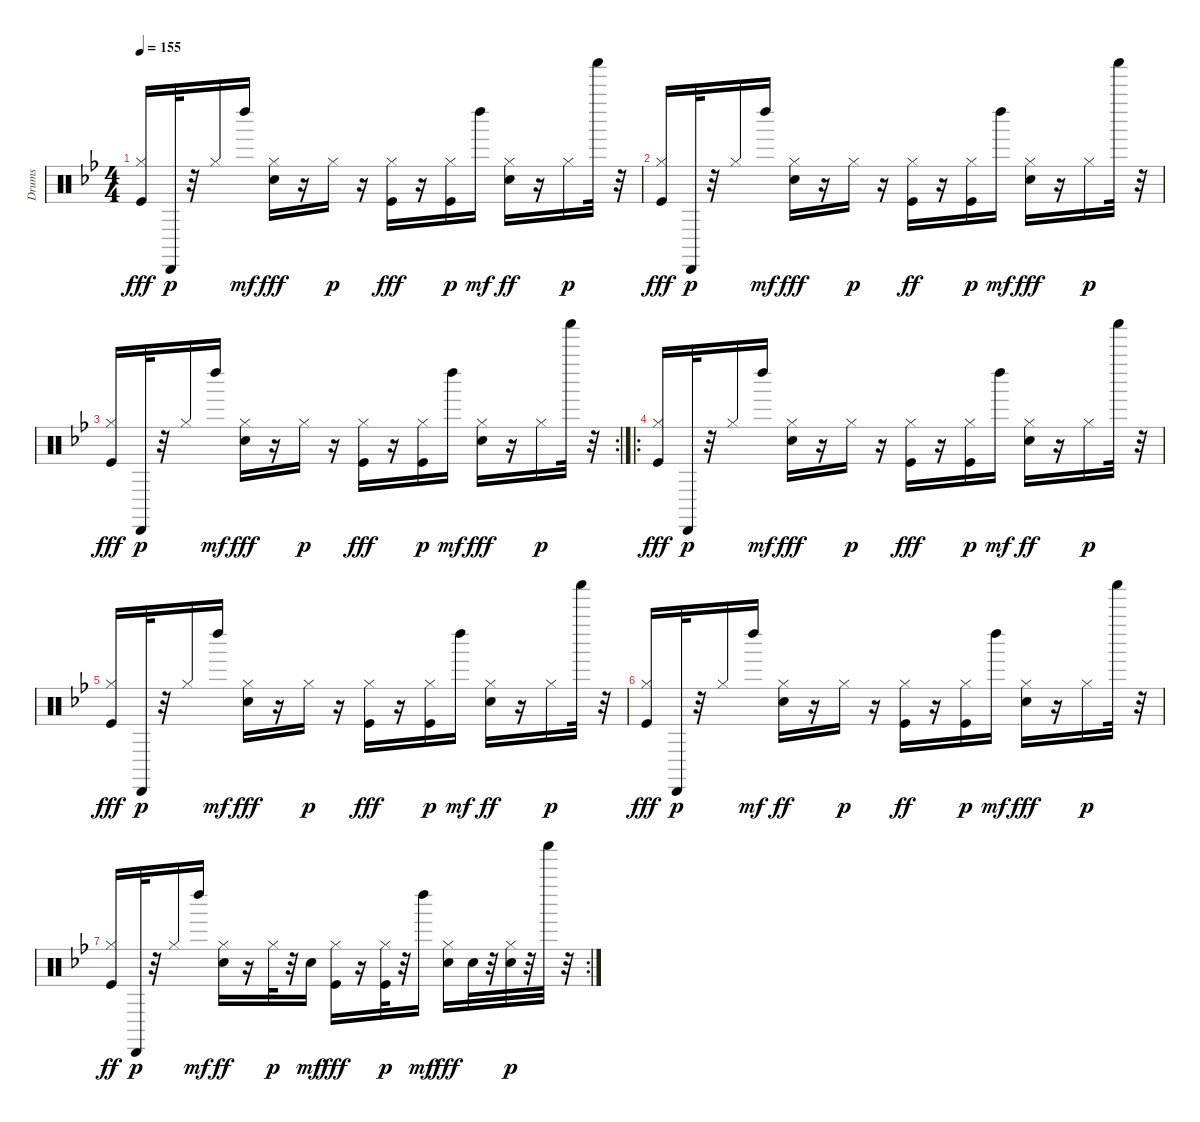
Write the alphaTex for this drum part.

\track ("Drums" "Drums") {instrument percussion}
\staff {score}
\articulation defaults
\ts (4 4)
\tempo 155
\clef neutral
\ks bb
("Hi-Hat (closed)" "Kick (hit)").16{dy fff} "Cabasa (hit)".32{dy p} r.32 "Hi-Hat (closed)".16 "Left Maraca (hit)".16{dy mf} ("Hi-Hat (closed)" "Electric Snare (hit)").16{dy fff} r.16 "Hi-Hat (closed)".16{dy p} r.16 ("Hi-Hat (closed)" "Kick (hit)").16{dy fff} r.16 ("Kick (hit)" "Hi-Hat (closed)").16{dy p} "Left Maraca (hit)".16{dy mf} ("Electric Snare (hit)" "Hi-Hat (closed)").16{dy ff} r.16 "Hi-Hat (closed)".16{dy p} "Shaker (hit)".32 r.32 |
("Hi-Hat (closed)" "Kick (hit)").16{dy fff} "Cabasa (hit)".32{dy p} r.32 "Hi-Hat (closed)".16 "Left Maraca (hit)".16{dy mf} ("Hi-Hat (closed)" "Electric Snare (hit)").16{dy fff} r.16 "Hi-Hat (closed)".16{dy p} r.16 ("Kick (hit)" "Hi-Hat (closed)").16{dy ff} r.16 ("Kick (hit)" "Hi-Hat (closed)").16{dy p} "Left Maraca (hit)".16{dy mf} ("Hi-Hat (closed)" "Electric Snare (hit)").16{dy fff} r.16 "Hi-Hat (closed)".16{dy p} "Shaker (hit)".32 r.32 |
\rc 2
("Hi-Hat (closed)" "Kick (hit)").16{dy fff} "Cabasa (hit)".32{dy p} r.32 "Hi-Hat (closed)".16 "Left Maraca (hit)".16{dy mf} ("Hi-Hat (closed)" "Electric Snare (hit)").16{dy fff} r.16 "Hi-Hat (closed)".16{dy p} r.16 ("Hi-Hat (closed)" "Kick (hit)").16{dy fff} r.16 ("Kick (hit)" "Hi-Hat (closed)").16{dy p} "Left Maraca (hit)".16{dy mf} ("Hi-Hat (closed)" "Electric Snare (hit)").16{dy fff} r.16 "Hi-Hat (closed)".16{dy p} "Shaker (hit)".32 r.32 |
\ro
("Hi-Hat (closed)" "Kick (hit)").16{dy fff} "Cabasa (hit)".32{dy p} r.32 "Hi-Hat (closed)".16 "Left Maraca (hit)".16{dy mf} ("Hi-Hat (closed)" "Electric Snare (hit)").16{dy fff} r.16 "Hi-Hat (closed)".16{dy p} r.16 ("Hi-Hat (closed)" "Kick (hit)").16{dy fff} r.16 ("Kick (hit)" "Hi-Hat (closed)").16{dy p} "Left Maraca (hit)".16{dy mf} ("Electric Snare (hit)" "Hi-Hat (closed)").16{dy ff} r.16 "Hi-Hat (closed)".16{dy p} "Shaker (hit)".32 r.32 |
("Hi-Hat (closed)" "Kick (hit)").16{dy fff} "Cabasa (hit)".32{dy p} r.32 "Hi-Hat (closed)".16 "Left Maraca (hit)".16{dy mf} ("Hi-Hat (closed)" "Electric Snare (hit)").16{dy fff} r.16 "Hi-Hat (closed)".16{dy p} r.16 ("Hi-Hat (closed)" "Kick (hit)").16{dy fff} r.16 ("Kick (hit)" "Hi-Hat (closed)").16{dy p} "Left Maraca (hit)".16{dy mf} ("Electric Snare (hit)" "Hi-Hat (closed)").16{dy ff} r.16 "Hi-Hat (closed)".16{dy p} "Shaker (hit)".32 r.32 |
("Hi-Hat (closed)" "Kick (hit)").16{dy fff} "Cabasa (hit)".32{dy p} r.32 "Hi-Hat (closed)".16 "Left Maraca (hit)".16{dy mf} ("Electric Snare (hit)" "Hi-Hat (closed)").16{dy ff} r.16 "Hi-Hat (closed)".16{dy p} r.16 ("Kick (hit)" "Hi-Hat (closed)").16{dy ff} r.16 ("Kick (hit)" "Hi-Hat (closed)").16{dy p} "Left Maraca (hit)".16{dy mf} ("Hi-Hat (closed)" "Electric Snare (hit)").16{dy fff} r.16 "Hi-Hat (closed)".16{dy p} "Shaker (hit)".32 r.32 |
\rc 2
("Kick (hit)" "Hi-Hat (closed)").16{dy ff} "Cabasa (hit)".32{dy p} r.32 "Hi-Hat (closed)".16 "Left Maraca (hit)".16{dy mf} ("Electric Snare (hit)" "Hi-Hat (closed)").16{dy ff} r.16 "Hi-Hat (closed)".32{dy p} r.32 "Electric Snare (hit)".16{dy mf} ("Hi-Hat (closed)" "Kick (hit)").16{dy fff} r.16 ("Kick (hit)" "Hi-Hat (closed)").32{dy p} r.32 "Left Maraca (hit)".16{dy mf} ("Hi-Hat (closed)" "Electric Snare (hit)").16{dy fff} "Electric Snare (hit)".32 r.32 ("Electric Snare (hit)" "Hi-Hat (closed)").32{dy p} r.32 "Shaker (hit)".32 r.32
